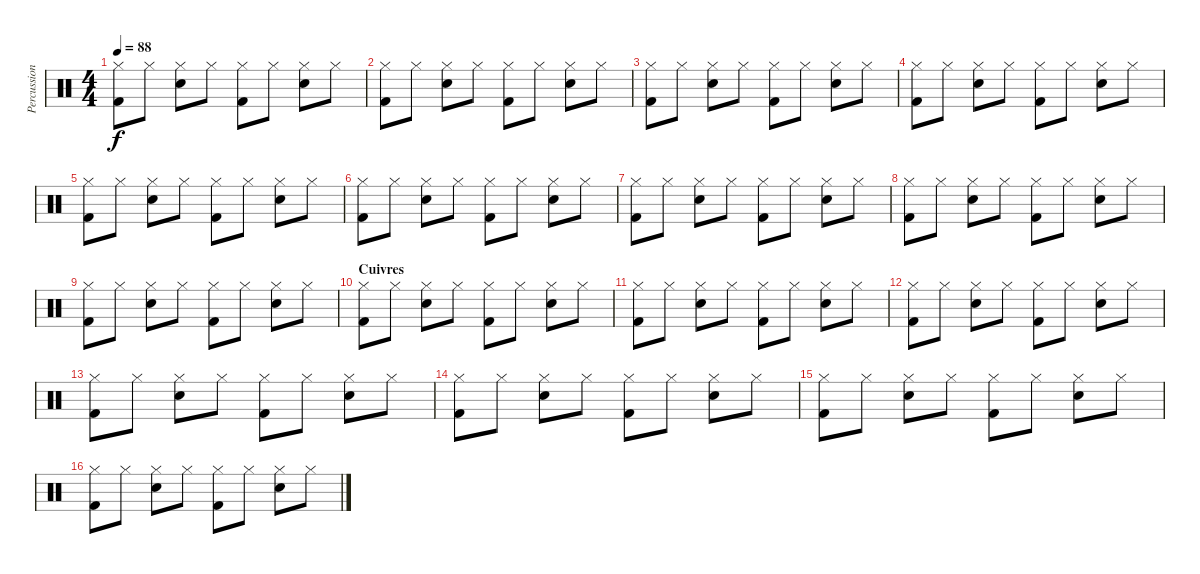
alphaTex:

\track ("Percussions" "Percussion") {instrument percussion}
\staff {score}
\articulation defaults
\ts (4 4)
\tempo 88
\clef neutral
\ks c
("Hi-Hat (closed)" "Kick (hit) 2").8{dy f} "Hi-Hat (closed)".8 ("Hi-Hat (closed)" "Snare (hit) 2").8 "Hi-Hat (closed)".8 ("Hi-Hat (closed)" "Kick (hit) 2").8 "Hi-Hat (closed)".8 ("Hi-Hat (closed)" "Snare (hit) 2").8 "Hi-Hat (closed)".8 |
("Hi-Hat (closed)" "Kick (hit) 2").8 "Hi-Hat (closed)".8 ("Hi-Hat (closed)" "Snare (hit) 2").8 "Hi-Hat (closed)".8 ("Hi-Hat (closed)" "Kick (hit) 2").8 "Hi-Hat (closed)".8 ("Hi-Hat (closed)" "Snare (hit) 2").8 "Hi-Hat (closed)".8 |
("Hi-Hat (closed)" "Kick (hit) 2").8 "Hi-Hat (closed)".8 ("Hi-Hat (closed)" "Snare (hit) 2").8 "Hi-Hat (closed)".8 ("Hi-Hat (closed)" "Kick (hit) 2").8 "Hi-Hat (closed)".8 ("Hi-Hat (closed)" "Snare (hit) 2").8 "Hi-Hat (closed)".8 |
("Hi-Hat (closed)" "Kick (hit) 2").8 "Hi-Hat (closed)".8 ("Hi-Hat (closed)" "Snare (hit) 2").8 "Hi-Hat (closed)".8 ("Hi-Hat (closed)" "Kick (hit) 2").8 "Hi-Hat (closed)".8 ("Hi-Hat (closed)" "Snare (hit) 2").8 "Hi-Hat (closed)".8 |
("Hi-Hat (closed)" "Kick (hit) 2").8 "Hi-Hat (closed)".8 ("Hi-Hat (closed)" "Snare (hit) 2").8 "Hi-Hat (closed)".8 ("Hi-Hat (closed)" "Kick (hit) 2").8 "Hi-Hat (closed)".8 ("Hi-Hat (closed)" "Snare (hit) 2").8 "Hi-Hat (closed)".8 |
("Hi-Hat (closed)" "Kick (hit) 2").8 "Hi-Hat (closed)".8 ("Hi-Hat (closed)" "Snare (hit) 2").8 "Hi-Hat (closed)".8 ("Hi-Hat (closed)" "Kick (hit) 2").8 "Hi-Hat (closed)".8 ("Hi-Hat (closed)" "Snare (hit) 2").8 "Hi-Hat (closed)".8 |
("Hi-Hat (closed)" "Kick (hit) 2").8 "Hi-Hat (closed)".8 ("Hi-Hat (closed)" "Snare (hit) 2").8 "Hi-Hat (closed)".8 ("Hi-Hat (closed)" "Kick (hit) 2").8 "Hi-Hat (closed)".8 ("Hi-Hat (closed)" "Snare (hit) 2").8 "Hi-Hat (closed)".8 |
("Hi-Hat (closed)" "Kick (hit) 2").8 "Hi-Hat (closed)".8 ("Hi-Hat (closed)" "Snare (hit) 2").8 "Hi-Hat (closed)".8 ("Hi-Hat (closed)" "Kick (hit) 2").8 "Hi-Hat (closed)".8 ("Hi-Hat (closed)" "Snare (hit) 2").8 "Hi-Hat (closed)".8 |
("Hi-Hat (closed)" "Kick (hit) 2").8 "Hi-Hat (closed)".8 ("Hi-Hat (closed)" "Snare (hit) 2").8 "Hi-Hat (closed)".8 ("Hi-Hat (closed)" "Kick (hit) 2").8 "Hi-Hat (closed)".8 ("Hi-Hat (closed)" "Snare (hit) 2").8 "Hi-Hat (closed)".8 |
\section ("" "Cuivres")
("Hi-Hat (closed)" "Kick (hit) 2").8 "Hi-Hat (closed)".8 ("Hi-Hat (closed)" "Snare (hit) 2").8 "Hi-Hat (closed)".8 ("Hi-Hat (closed)" "Kick (hit) 2").8 "Hi-Hat (closed)".8 ("Hi-Hat (closed)" "Snare (hit) 2").8 "Hi-Hat (closed)".8 |
("Hi-Hat (closed)" "Kick (hit) 2").8 "Hi-Hat (closed)".8 ("Hi-Hat (closed)" "Snare (hit) 2").8 "Hi-Hat (closed)".8 ("Hi-Hat (closed)" "Kick (hit) 2").8 "Hi-Hat (closed)".8 ("Hi-Hat (closed)" "Snare (hit) 2").8 "Hi-Hat (closed)".8 |
("Hi-Hat (closed)" "Kick (hit) 2").8 "Hi-Hat (closed)".8 ("Hi-Hat (closed)" "Snare (hit) 2").8 "Hi-Hat (closed)".8 ("Hi-Hat (closed)" "Kick (hit) 2").8 "Hi-Hat (closed)".8 ("Hi-Hat (closed)" "Snare (hit) 2").8 "Hi-Hat (closed)".8 |
("Hi-Hat (closed)" "Kick (hit) 2").8 "Hi-Hat (closed)".8 ("Hi-Hat (closed)" "Snare (hit) 2").8 "Hi-Hat (closed)".8 ("Hi-Hat (closed)" "Kick (hit) 2").8 "Hi-Hat (closed)".8 ("Hi-Hat (closed)" "Snare (hit) 2").8 "Hi-Hat (closed)".8 |
("Hi-Hat (closed)" "Kick (hit) 2").8 "Hi-Hat (closed)".8 ("Hi-Hat (closed)" "Snare (hit) 2").8 "Hi-Hat (closed)".8 ("Hi-Hat (closed)" "Kick (hit) 2").8 "Hi-Hat (closed)".8 ("Hi-Hat (closed)" "Snare (hit) 2").8 "Hi-Hat (closed)".8 |
("Hi-Hat (closed)" "Kick (hit) 2").8 "Hi-Hat (closed)".8 ("Hi-Hat (closed)" "Snare (hit) 2").8 "Hi-Hat (closed)".8 ("Hi-Hat (closed)" "Kick (hit) 2").8 "Hi-Hat (closed)".8 ("Hi-Hat (closed)" "Snare (hit) 2").8 "Hi-Hat (closed)".8 |
("Hi-Hat (closed)" "Kick (hit) 2").8 "Hi-Hat (closed)".8 ("Hi-Hat (closed)" "Snare (hit) 2").8 "Hi-Hat (closed)".8 ("Hi-Hat (closed)" "Kick (hit) 2").8 "Hi-Hat (closed)".8 ("Hi-Hat (closed)" "Snare (hit) 2").8 "Hi-Hat (closed)".8
